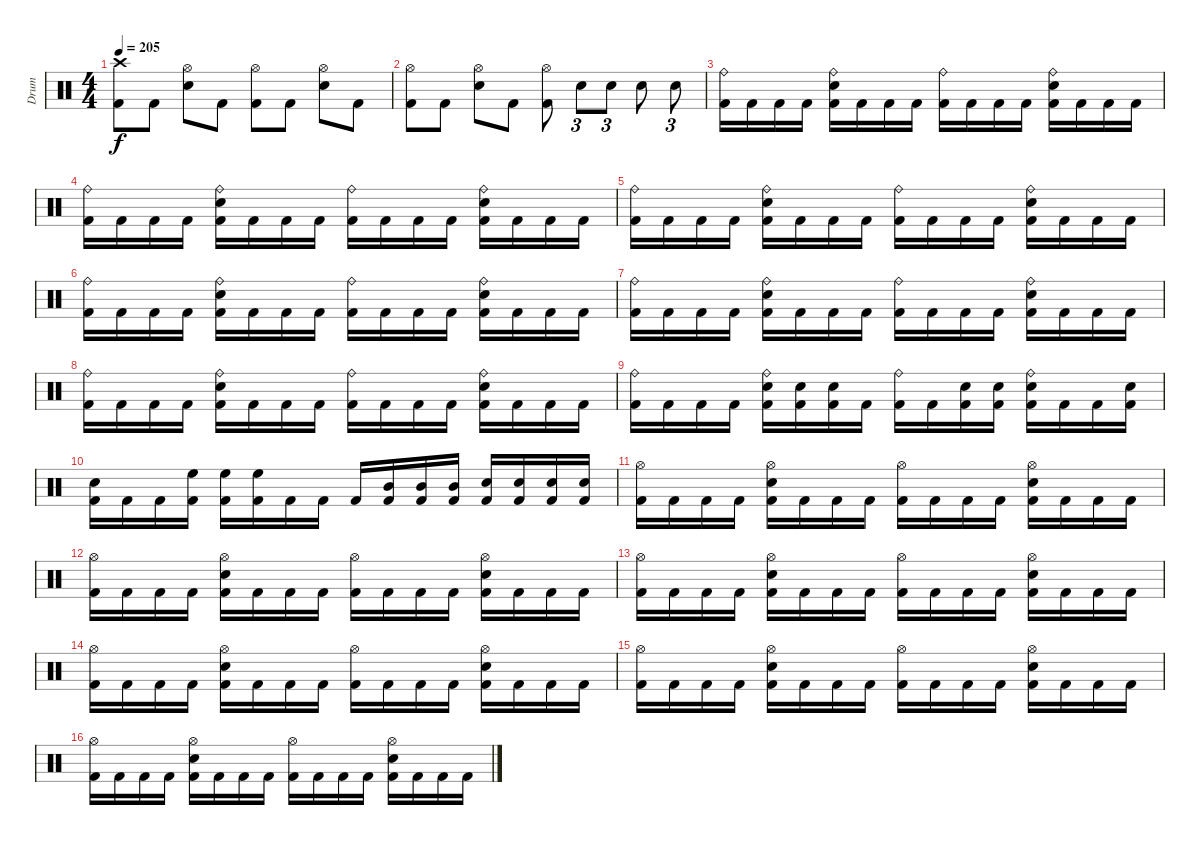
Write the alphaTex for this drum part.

\track ("Drum" "Drum") {instrument percussion}
\staff {score}
\articulation defaults
\ts (4 4)
\tempo 205
\clef neutral
\ks c
("Kick (hit) 2" "Crash high (hit)").8{dy f} "Kick (hit) 2".8 ("Electric Snare (hit)" "Hi-Hat (open)").8 "Kick (hit) 2".8 ("Kick (hit) 2" "Hi-Hat (open)").8 "Kick (hit) 2".8 ("Electric Snare (hit)" "Hi-Hat (open)").8 "Kick (hit) 2".8 |
("Kick (hit) 2" "Hi-Hat (open)").8 "Kick (hit) 2".8 ("Electric Snare (hit)" "Hi-Hat (open)").8 "Kick (hit) 2".8 ("Kick (hit) 2" "Hi-Hat (open)").8 "Electric Snare (hit)".8{tu (3 2)} "Electric Snare (hit)".8{tu (3 2)} "Electric Snare (hit)".8 "Electric Snare (hit)".8{tu (3 2)} |
("Kick (hit) 2" "Ride (bell)").16 "Kick (hit) 2".16 "Kick (hit) 2".16 "Kick (hit) 2".16 ("Kick (hit) 2" "Electric Snare (hit)" "Ride (bell)").16 "Kick (hit) 2".16 "Kick (hit) 2".16 "Kick (hit) 2".16 ("Kick (hit) 2" "Ride (bell)").16 "Kick (hit) 2".16 "Kick (hit) 2".16 "Kick (hit) 2".16 ("Kick (hit) 2" "Electric Snare (hit)" "Ride (bell)").16 "Kick (hit) 2".16 "Kick (hit) 2".16 "Kick (hit) 2".16 |
("Kick (hit) 2" "Ride (bell)").16 "Kick (hit) 2".16 "Kick (hit) 2".16 "Kick (hit) 2".16 ("Kick (hit) 2" "Electric Snare (hit)" "Ride (bell)").16 "Kick (hit) 2".16 "Kick (hit) 2".16 "Kick (hit) 2".16 ("Kick (hit) 2" "Ride (bell)").16 "Kick (hit) 2".16 "Kick (hit) 2".16 "Kick (hit) 2".16 ("Kick (hit) 2" "Electric Snare (hit)" "Ride (bell)").16 "Kick (hit) 2".16 "Kick (hit) 2".16 "Kick (hit) 2".16 |
("Kick (hit) 2" "Ride (bell)").16 "Kick (hit) 2".16 "Kick (hit) 2".16 "Kick (hit) 2".16 ("Kick (hit) 2" "Electric Snare (hit)" "Ride (bell)").16 "Kick (hit) 2".16 "Kick (hit) 2".16 "Kick (hit) 2".16 ("Kick (hit) 2" "Ride (bell)").16 "Kick (hit) 2".16 "Kick (hit) 2".16 "Kick (hit) 2".16 ("Kick (hit) 2" "Electric Snare (hit)" "Ride (bell)").16 "Kick (hit) 2".16 "Kick (hit) 2".16 "Kick (hit) 2".16 |
("Kick (hit) 2" "Ride (bell)").16 "Kick (hit) 2".16 "Kick (hit) 2".16 "Kick (hit) 2".16 ("Kick (hit) 2" "Electric Snare (hit)" "Ride (bell)").16 "Kick (hit) 2".16 "Kick (hit) 2".16 "Kick (hit) 2".16 ("Kick (hit) 2" "Ride (bell)").16 "Kick (hit) 2".16 "Kick (hit) 2".16 "Kick (hit) 2".16 ("Kick (hit) 2" "Electric Snare (hit)" "Ride (bell)").16 "Kick (hit) 2".16 "Kick (hit) 2".16 "Kick (hit) 2".16 |
("Kick (hit) 2" "Ride (bell)").16 "Kick (hit) 2".16 "Kick (hit) 2".16 "Kick (hit) 2".16 ("Kick (hit) 2" "Electric Snare (hit)" "Ride (bell)").16 "Kick (hit) 2".16 "Kick (hit) 2".16 "Kick (hit) 2".16 ("Kick (hit) 2" "Ride (bell)").16 "Kick (hit) 2".16 "Kick (hit) 2".16 "Kick (hit) 2".16 ("Kick (hit) 2" "Electric Snare (hit)" "Ride (bell)").16 "Kick (hit) 2".16 "Kick (hit) 2".16 "Kick (hit) 2".16 |
("Kick (hit) 2" "Ride (bell)").16 "Kick (hit) 2".16 "Kick (hit) 2".16 "Kick (hit) 2".16 ("Kick (hit) 2" "Electric Snare (hit)" "Ride (bell)").16 "Kick (hit) 2".16 "Kick (hit) 2".16 "Kick (hit) 2".16 ("Kick (hit) 2" "Ride (bell)").16 "Kick (hit) 2".16 "Kick (hit) 2".16 "Kick (hit) 2".16 ("Kick (hit) 2" "Electric Snare (hit)" "Ride (bell)").16 "Kick (hit) 2".16 "Kick (hit) 2".16 "Kick (hit) 2".16 |
("Kick (hit) 2" "Ride (bell)").16 "Kick (hit) 2".16 "Kick (hit) 2".16 "Kick (hit) 2".16 ("Kick (hit) 2" "Electric Snare (hit)" "Ride (bell)").16 ("Kick (hit) 2" "Electric Snare (hit)").16 ("Kick (hit) 2" "Electric Snare (hit)").16 "Kick (hit) 2".16 ("Kick (hit) 2" "Ride (bell)").16 "Kick (hit) 2".16 ("Kick (hit) 2" "Electric Snare (hit)").16 ("Kick (hit) 2" "Electric Snare (hit)").16 ("Kick (hit) 2" "Electric Snare (hit)" "Ride (bell)").16 "Kick (hit) 2".16 "Kick (hit) 2".16 ("Kick (hit) 2" "Electric Snare (hit)").16 |
("Kick (hit) 2" "Electric Snare (hit)").16 "Kick (hit) 2".16 "Kick (hit) 2".16 ("Kick (hit) 2" "High Floor Tom (hit)").16 ("Kick (hit) 2" "High Floor Tom (hit)").16 ("Kick (hit) 2" "High Floor Tom (hit)").16 "Kick (hit) 2".16 "Kick (hit) 2".16 "Kick (hit) 2".16 ("Kick (hit) 2" "Mid Tom (hit)").16 ("Kick (hit) 2" "Mid Tom (hit)").16 ("Kick (hit) 2" "Mid Tom (hit)").16 ("Kick (hit) 2" "Electric Snare (hit)").16 ("Kick (hit) 2" "Electric Snare (hit)").16 ("Kick (hit) 2" "Electric Snare (hit)").16 ("Kick (hit) 2" "Electric Snare (hit)").16 |
("Kick (hit) 2" "Hi-Hat (open)").16 "Kick (hit) 2".16 "Kick (hit) 2".16 "Kick (hit) 2".16 ("Kick (hit) 2" "Electric Snare (hit)" "Hi-Hat (open)").16 "Kick (hit) 2".16 "Kick (hit) 2".16 "Kick (hit) 2".16 ("Kick (hit) 2" "Hi-Hat (open)").16 "Kick (hit) 2".16 "Kick (hit) 2".16 "Kick (hit) 2".16 ("Kick (hit) 2" "Electric Snare (hit)" "Hi-Hat (open)").16 "Kick (hit) 2".16 "Kick (hit) 2".16 "Kick (hit) 2".16 |
("Kick (hit) 2" "Hi-Hat (open)").16 "Kick (hit) 2".16 "Kick (hit) 2".16 "Kick (hit) 2".16 ("Kick (hit) 2" "Electric Snare (hit)" "Hi-Hat (open)").16 "Kick (hit) 2".16 "Kick (hit) 2".16 "Kick (hit) 2".16 ("Kick (hit) 2" "Hi-Hat (open)").16 "Kick (hit) 2".16 "Kick (hit) 2".16 "Kick (hit) 2".16 ("Kick (hit) 2" "Electric Snare (hit)" "Hi-Hat (open)").16 "Kick (hit) 2".16 "Kick (hit) 2".16 "Kick (hit) 2".16 |
("Kick (hit) 2" "Hi-Hat (open)").16 "Kick (hit) 2".16 "Kick (hit) 2".16 "Kick (hit) 2".16 ("Kick (hit) 2" "Electric Snare (hit)" "Hi-Hat (open)").16 "Kick (hit) 2".16 "Kick (hit) 2".16 "Kick (hit) 2".16 ("Kick (hit) 2" "Hi-Hat (open)").16 "Kick (hit) 2".16 "Kick (hit) 2".16 "Kick (hit) 2".16 ("Kick (hit) 2" "Electric Snare (hit)" "Hi-Hat (open)").16 "Kick (hit) 2".16 "Kick (hit) 2".16 "Kick (hit) 2".16 |
("Kick (hit) 2" "Hi-Hat (open)").16 "Kick (hit) 2".16 "Kick (hit) 2".16 "Kick (hit) 2".16 ("Kick (hit) 2" "Electric Snare (hit)" "Hi-Hat (open)").16 "Kick (hit) 2".16 "Kick (hit) 2".16 "Kick (hit) 2".16 ("Kick (hit) 2" "Hi-Hat (open)").16 "Kick (hit) 2".16 "Kick (hit) 2".16 "Kick (hit) 2".16 ("Kick (hit) 2" "Electric Snare (hit)" "Hi-Hat (open)").16 "Kick (hit) 2".16 "Kick (hit) 2".16 "Kick (hit) 2".16 |
("Kick (hit) 2" "Hi-Hat (open)").16 "Kick (hit) 2".16 "Kick (hit) 2".16 "Kick (hit) 2".16 ("Kick (hit) 2" "Electric Snare (hit)" "Hi-Hat (open)").16 "Kick (hit) 2".16 "Kick (hit) 2".16 "Kick (hit) 2".16 ("Kick (hit) 2" "Hi-Hat (open)").16 "Kick (hit) 2".16 "Kick (hit) 2".16 "Kick (hit) 2".16 ("Kick (hit) 2" "Electric Snare (hit)" "Hi-Hat (open)").16 "Kick (hit) 2".16 "Kick (hit) 2".16 "Kick (hit) 2".16 |
("Kick (hit) 2" "Hi-Hat (open)").16 "Kick (hit) 2".16 "Kick (hit) 2".16 "Kick (hit) 2".16 ("Kick (hit) 2" "Electric Snare (hit)" "Hi-Hat (open)").16 "Kick (hit) 2".16 "Kick (hit) 2".16 "Kick (hit) 2".16 ("Kick (hit) 2" "Hi-Hat (open)").16 "Kick (hit) 2".16 "Kick (hit) 2".16 "Kick (hit) 2".16 ("Kick (hit) 2" "Electric Snare (hit)" "Hi-Hat (open)").16 "Kick (hit) 2".16 "Kick (hit) 2".16 "Kick (hit) 2".16
